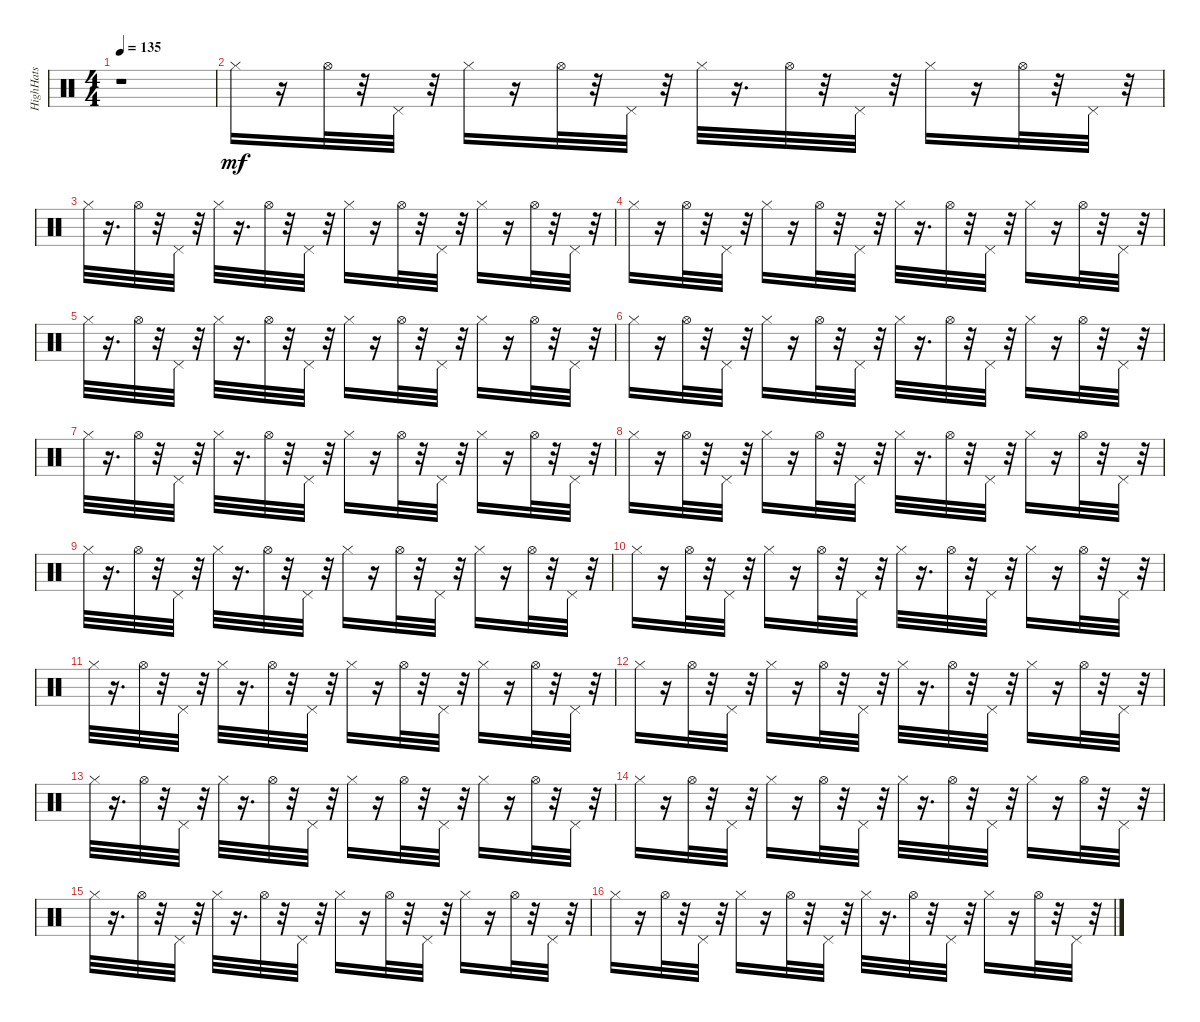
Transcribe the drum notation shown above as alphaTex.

\track ("HighHats" "HighHats") {instrument percussion}
\staff {score}
\articulation defaults
\ts (4 4)
\tempo 135
\clef neutral
\ks c
r.1{dy mf} |
"Hi-Hat (closed)".16 r.16 "Hi-Hat (open)".32 r.32 "Pedal Hi-Hat (hit)".32 r.32 "Hi-Hat (closed)".16 r.16 "Hi-Hat (open)".32 r.32 "Pedal Hi-Hat (hit)".32 r.32 "Hi-Hat (closed)".32 r.16{d} "Hi-Hat (open)".32 r.32 "Pedal Hi-Hat (hit)".32 r.32 "Hi-Hat (closed)".16 r.16 "Hi-Hat (open)".32 r.32 "Pedal Hi-Hat (hit)".32 r.32 |
"Hi-Hat (closed)".32 r.16{d} "Hi-Hat (open)".32 r.32 "Pedal Hi-Hat (hit)".32 r.32 "Hi-Hat (closed)".32 r.16{d} "Hi-Hat (open)".32 r.32 "Pedal Hi-Hat (hit)".32 r.32 "Hi-Hat (closed)".16 r.16 "Hi-Hat (open)".32 r.32 "Pedal Hi-Hat (hit)".32 r.32 "Hi-Hat (closed)".16 r.16 "Hi-Hat (open)".32 r.32 "Pedal Hi-Hat (hit)".32 r.32 |
"Hi-Hat (closed)".16 r.16 "Hi-Hat (open)".32 r.32 "Pedal Hi-Hat (hit)".32 r.32 "Hi-Hat (closed)".16 r.16 "Hi-Hat (open)".32 r.32 "Pedal Hi-Hat (hit)".32 r.32 "Hi-Hat (closed)".32 r.16{d} "Hi-Hat (open)".32 r.32 "Pedal Hi-Hat (hit)".32 r.32 "Hi-Hat (closed)".16 r.16 "Hi-Hat (open)".32 r.32 "Pedal Hi-Hat (hit)".32 r.32 |
"Hi-Hat (closed)".32 r.16{d} "Hi-Hat (open)".32 r.32 "Pedal Hi-Hat (hit)".32 r.32 "Hi-Hat (closed)".32 r.16{d} "Hi-Hat (open)".32 r.32 "Pedal Hi-Hat (hit)".32 r.32 "Hi-Hat (closed)".16 r.16 "Hi-Hat (open)".32 r.32 "Pedal Hi-Hat (hit)".32 r.32 "Hi-Hat (closed)".16 r.16 "Hi-Hat (open)".32 r.32 "Pedal Hi-Hat (hit)".32 r.32 |
"Hi-Hat (closed)".16 r.16 "Hi-Hat (open)".32 r.32 "Pedal Hi-Hat (hit)".32 r.32 "Hi-Hat (closed)".16 r.16 "Hi-Hat (open)".32 r.32 "Pedal Hi-Hat (hit)".32 r.32 "Hi-Hat (closed)".32 r.16{d} "Hi-Hat (open)".32 r.32 "Pedal Hi-Hat (hit)".32 r.32 "Hi-Hat (closed)".16 r.16 "Hi-Hat (open)".32 r.32 "Pedal Hi-Hat (hit)".32 r.32 |
"Hi-Hat (closed)".32 r.16{d} "Hi-Hat (open)".32 r.32 "Pedal Hi-Hat (hit)".32 r.32 "Hi-Hat (closed)".32 r.16{d} "Hi-Hat (open)".32 r.32 "Pedal Hi-Hat (hit)".32 r.32 "Hi-Hat (closed)".16 r.16 "Hi-Hat (open)".32 r.32 "Pedal Hi-Hat (hit)".32 r.32 "Hi-Hat (closed)".16 r.16 "Hi-Hat (open)".32 r.32 "Pedal Hi-Hat (hit)".32 r.32 |
"Hi-Hat (closed)".16 r.16 "Hi-Hat (open)".32 r.32 "Pedal Hi-Hat (hit)".32 r.32 "Hi-Hat (closed)".16 r.16 "Hi-Hat (open)".32 r.32 "Pedal Hi-Hat (hit)".32 r.32 "Hi-Hat (closed)".32 r.16{d} "Hi-Hat (open)".32 r.32 "Pedal Hi-Hat (hit)".32 r.32 "Hi-Hat (closed)".16 r.16 "Hi-Hat (open)".32 r.32 "Pedal Hi-Hat (hit)".32 r.32 |
"Hi-Hat (closed)".32 r.16{d} "Hi-Hat (open)".32 r.32 "Pedal Hi-Hat (hit)".32 r.32 "Hi-Hat (closed)".32 r.16{d} "Hi-Hat (open)".32 r.32 "Pedal Hi-Hat (hit)".32 r.32 "Hi-Hat (closed)".16 r.16 "Hi-Hat (open)".32 r.32 "Pedal Hi-Hat (hit)".32 r.32 "Hi-Hat (closed)".16 r.16 "Hi-Hat (open)".32 r.32 "Pedal Hi-Hat (hit)".32 r.32 |
"Hi-Hat (closed)".16 r.16 "Hi-Hat (open)".32 r.32 "Pedal Hi-Hat (hit)".32 r.32 "Hi-Hat (closed)".16 r.16 "Hi-Hat (open)".32 r.32 "Pedal Hi-Hat (hit)".32 r.32 "Hi-Hat (closed)".32 r.16{d} "Hi-Hat (open)".32 r.32 "Pedal Hi-Hat (hit)".32 r.32 "Hi-Hat (closed)".16 r.16 "Hi-Hat (open)".32 r.32 "Pedal Hi-Hat (hit)".32 r.32 |
"Hi-Hat (closed)".32 r.16{d} "Hi-Hat (open)".32 r.32 "Pedal Hi-Hat (hit)".32 r.32 "Hi-Hat (closed)".32 r.16{d} "Hi-Hat (open)".32 r.32 "Pedal Hi-Hat (hit)".32 r.32 "Hi-Hat (closed)".16 r.16 "Hi-Hat (open)".32 r.32 "Pedal Hi-Hat (hit)".32 r.32 "Hi-Hat (closed)".16 r.16 "Hi-Hat (open)".32 r.32 "Pedal Hi-Hat (hit)".32 r.32 |
"Hi-Hat (closed)".16 r.16 "Hi-Hat (open)".32 r.32 "Pedal Hi-Hat (hit)".32 r.32 "Hi-Hat (closed)".16 r.16 "Hi-Hat (open)".32 r.32 "Pedal Hi-Hat (hit)".32 r.32 "Hi-Hat (closed)".32 r.16{d} "Hi-Hat (open)".32 r.32 "Pedal Hi-Hat (hit)".32 r.32 "Hi-Hat (closed)".16 r.16 "Hi-Hat (open)".32 r.32 "Pedal Hi-Hat (hit)".32 r.32 |
"Hi-Hat (closed)".32 r.16{d} "Hi-Hat (open)".32 r.32 "Pedal Hi-Hat (hit)".32 r.32 "Hi-Hat (closed)".32 r.16{d} "Hi-Hat (open)".32 r.32 "Pedal Hi-Hat (hit)".32 r.32 "Hi-Hat (closed)".16 r.16 "Hi-Hat (open)".32 r.32 "Pedal Hi-Hat (hit)".32 r.32 "Hi-Hat (closed)".16 r.16 "Hi-Hat (open)".32 r.32 "Pedal Hi-Hat (hit)".32 r.32 |
"Hi-Hat (closed)".16 r.16 "Hi-Hat (open)".32 r.32 "Pedal Hi-Hat (hit)".32 r.32 "Hi-Hat (closed)".16 r.16 "Hi-Hat (open)".32 r.32 "Pedal Hi-Hat (hit)".32 r.32 "Hi-Hat (closed)".32 r.16{d} "Hi-Hat (open)".32 r.32 "Pedal Hi-Hat (hit)".32 r.32 "Hi-Hat (closed)".16 r.16 "Hi-Hat (open)".32 r.32 "Pedal Hi-Hat (hit)".32 r.32 |
"Hi-Hat (closed)".32 r.16{d} "Hi-Hat (open)".32 r.32 "Pedal Hi-Hat (hit)".32 r.32 "Hi-Hat (closed)".32 r.16{d} "Hi-Hat (open)".32 r.32 "Pedal Hi-Hat (hit)".32 r.32 "Hi-Hat (closed)".16 r.16 "Hi-Hat (open)".32 r.32 "Pedal Hi-Hat (hit)".32 r.32 "Hi-Hat (closed)".16 r.16 "Hi-Hat (open)".32 r.32 "Pedal Hi-Hat (hit)".32 r.32 |
"Hi-Hat (closed)".16 r.16 "Hi-Hat (open)".32 r.32 "Pedal Hi-Hat (hit)".32 r.32 "Hi-Hat (closed)".16 r.16 "Hi-Hat (open)".32 r.32 "Pedal Hi-Hat (hit)".32 r.32 "Hi-Hat (closed)".32 r.16{d} "Hi-Hat (open)".32 r.32 "Pedal Hi-Hat (hit)".32 r.32 "Hi-Hat (closed)".16 r.16 "Hi-Hat (open)".32 r.32 "Pedal Hi-Hat (hit)".32 r.32
